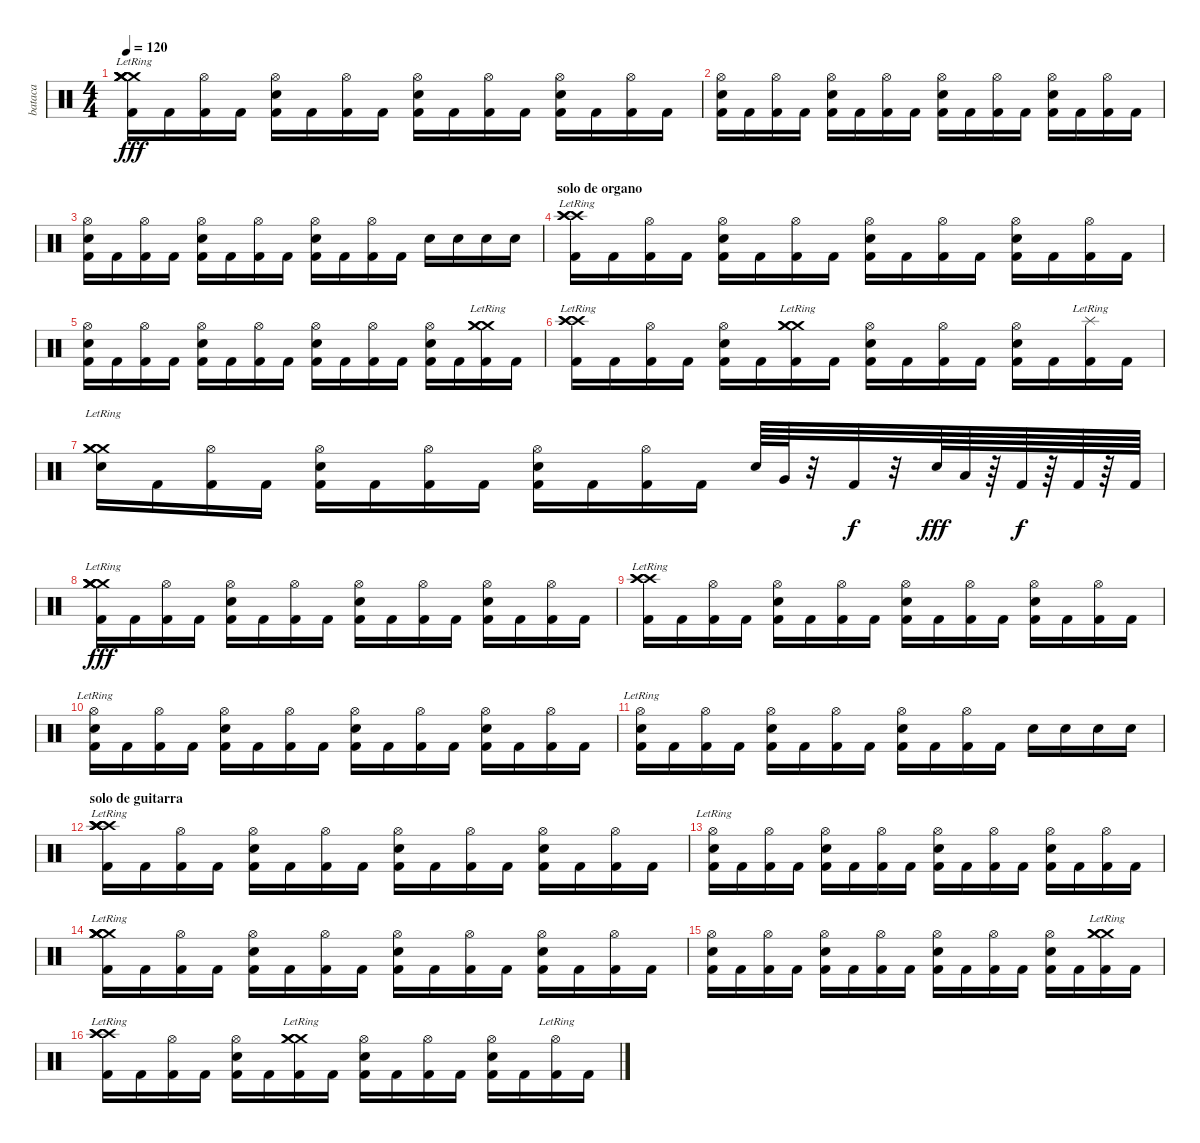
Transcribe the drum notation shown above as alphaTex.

\track ("bataca" "bataca") {instrument percussion}
\staff {score}
\articulation defaults
\ts (4 4)
\tempo 120
\clef neutral
\ks c
("Kick (hit) 2" "Crash medium (hit)"{lr} "Crash medium (hit)"{lr} "Crash medium (hit)"{lr} "Crash medium (hit)"{lr} "Crash medium (hit)").16{dy fff} "Kick (hit) 2".16 ("Kick (hit) 2" "Hi-Hat (open)").16 "Kick (hit) 2".16 ("Kick (hit) 2" "Hi-Hat (open)" "Electric Snare (hit)").16 "Kick (hit) 2".16 ("Kick (hit) 2" "Hi-Hat (open)").16 "Kick (hit) 2".16 ("Kick (hit) 2" "Hi-Hat (open)" "Electric Snare (hit)").16 "Kick (hit) 2".16 ("Kick (hit) 2" "Hi-Hat (open)").16 "Kick (hit) 2".16 ("Kick (hit) 2" "Hi-Hat (open)" "Electric Snare (hit)").16 "Kick (hit) 2".16 ("Kick (hit) 2" "Hi-Hat (open)").16 "Kick (hit) 2".16 |
("Kick (hit) 2" "Hi-Hat (open)" "Electric Snare (hit)").16 "Kick (hit) 2".16 ("Kick (hit) 2" "Hi-Hat (open)").16 "Kick (hit) 2".16 ("Kick (hit) 2" "Hi-Hat (open)" "Electric Snare (hit)").16 "Kick (hit) 2".16 ("Kick (hit) 2" "Hi-Hat (open)").16 "Kick (hit) 2".16 ("Kick (hit) 2" "Hi-Hat (open)" "Electric Snare (hit)").16 "Kick (hit) 2".16 ("Kick (hit) 2" "Hi-Hat (open)").16 "Kick (hit) 2".16 ("Kick (hit) 2" "Hi-Hat (open)" "Electric Snare (hit)").16 "Kick (hit) 2".16 ("Kick (hit) 2" "Hi-Hat (open)").16 "Kick (hit) 2".16 |
("Kick (hit) 2" "Hi-Hat (open)" "Electric Snare (hit)").16 "Kick (hit) 2".16 ("Kick (hit) 2" "Hi-Hat (open)").16 "Kick (hit) 2".16 ("Kick (hit) 2" "Hi-Hat (open)" "Electric Snare (hit)").16 "Kick (hit) 2".16 ("Kick (hit) 2" "Hi-Hat (open)").16 "Kick (hit) 2".16 ("Kick (hit) 2" "Hi-Hat (open)" "Electric Snare (hit)").16 "Kick (hit) 2".16 ("Kick (hit) 2" "Hi-Hat (open)").16 "Kick (hit) 2".16 "Electric Snare (hit)".16 "Electric Snare (hit)".16 "Electric Snare (hit)".16 "Electric Snare (hit)".16 |
\section ("" "solo de organo")
("Kick (hit) 2" "Crash high (hit)"{lr} "Crash high (hit)"{lr} "Crash high (hit)"{lr}).16 "Kick (hit) 2".16 ("Kick (hit) 2" "Hi-Hat (open)").16 "Kick (hit) 2".16 ("Kick (hit) 2" "Hi-Hat (open)" "Electric Snare (hit)").16 "Kick (hit) 2".16 ("Kick (hit) 2" "Hi-Hat (open)").16 "Kick (hit) 2".16 ("Kick (hit) 2" "Hi-Hat (open)" "Electric Snare (hit)").16 "Kick (hit) 2".16 ("Kick (hit) 2" "Hi-Hat (open)").16 "Kick (hit) 2".16 ("Kick (hit) 2" "Hi-Hat (open)" "Electric Snare (hit)").16 "Kick (hit) 2".16 ("Kick (hit) 2" "Hi-Hat (open)").16 "Kick (hit) 2".16 |
("Kick (hit) 2" "Hi-Hat (open)" "Electric Snare (hit)").16 "Kick (hit) 2".16 ("Kick (hit) 2" "Hi-Hat (open)").16 "Kick (hit) 2".16 ("Kick (hit) 2" "Hi-Hat (open)" "Electric Snare (hit)").16 "Kick (hit) 2".16 ("Kick (hit) 2" "Hi-Hat (open)").16 "Kick (hit) 2".16 ("Kick (hit) 2" "Hi-Hat (open)" "Electric Snare (hit)").16 "Kick (hit) 2".16 ("Kick (hit) 2" "Hi-Hat (open)").16 "Kick (hit) 2".16 ("Kick (hit) 2" "Hi-Hat (open)" "Electric Snare (hit)").16 "Kick (hit) 2".16 ("Kick (hit) 2" "Crash medium (hit)"{lr} "Crash medium (hit)"{lr} "Crash medium (hit)"{lr}).16 "Kick (hit) 2".16 |
("Kick (hit) 2" "Crash high (hit)"{lr} "Crash high (hit)"{lr} "Crash high (hit)"{lr}).16 "Kick (hit) 2".16 ("Kick (hit) 2" "Hi-Hat (open)").16 "Kick (hit) 2".16 ("Kick (hit) 2" "Hi-Hat (open)" "Electric Snare (hit)").16 "Kick (hit) 2".16 ("Kick (hit) 2" "Crash medium (hit)"{lr} "Crash medium (hit)"{lr} "Crash medium (hit)"{lr}).16 "Kick (hit) 2".16 ("Kick (hit) 2" "Hi-Hat (open)" "Electric Snare (hit)").16 "Kick (hit) 2".16 ("Kick (hit) 2" "Hi-Hat (open)").16 "Kick (hit) 2".16 ("Kick (hit) 2" "Hi-Hat (open)" "Electric Snare (hit)").16 "Kick (hit) 2".16 ("Kick (hit) 2" "Splash (hit)"{lr}).16 "Kick (hit) 2".16 |
("Electric Snare (hit)" "Crash medium (hit)"{lr} "Crash medium (hit)"{lr} "Crash medium (hit)"{lr}).16 "Kick (hit) 2".16 ("Kick (hit) 2" "Hi-Hat (open)").16 "Kick (hit) 2".16 ("Kick (hit) 2" "Hi-Hat (open)" "Electric Snare (hit)").16 "Kick (hit) 2".16 ("Kick (hit) 2" "Hi-Hat (open)").16 "Kick (hit) 2".16 ("Kick (hit) 2" "Hi-Hat (open)" "Electric Snare (hit)").16 "Kick (hit) 2".16 ("Kick (hit) 2" "Hi-Hat (open)").16 "Kick (hit) 2".16 "Electric Snare (hit)".64 "Very Low Tom (hit)".64 r.32 "Kick (hit) 2".32{dy f} r.32 "Electric Snare (hit)".64{dy fff} "Low Floor Tom (hit)".64 r.64 "Kick (hit) 2".64{dy f} r.64 "Kick (hit) 2".64 r.64 "Kick (hit) 2".64 |
("Kick (hit) 2" "Crash medium (hit)"{lr} "Crash medium (hit)"{lr} "Crash medium (hit)"{lr} "Crash medium (hit)"{lr} "Crash medium (hit)").16{dy fff} "Kick (hit) 2".16 ("Kick (hit) 2" "Hi-Hat (open)").16 "Kick (hit) 2".16 ("Kick (hit) 2" "Hi-Hat (open)" "Electric Snare (hit)").16 "Kick (hit) 2".16 ("Kick (hit) 2" "Hi-Hat (open)").16 "Kick (hit) 2".16 ("Kick (hit) 2" "Hi-Hat (open)" "Electric Snare (hit)").16 "Kick (hit) 2".16 ("Kick (hit) 2" "Hi-Hat (open)").16 "Kick (hit) 2".16 ("Kick (hit) 2" "Hi-Hat (open)" "Electric Snare (hit)").16 "Kick (hit) 2".16 ("Kick (hit) 2" "Hi-Hat (open)").16 "Kick (hit) 2".16 |
("Kick (hit) 2" "Crash high (hit)"{lr} "Crash high (hit)"{lr} "Crash high (hit)"{lr}).16 "Kick (hit) 2".16 ("Kick (hit) 2" "Hi-Hat (open)").16 "Kick (hit) 2".16 ("Kick (hit) 2" "Hi-Hat (open)" "Electric Snare (hit)").16 "Kick (hit) 2".16 ("Kick (hit) 2" "Hi-Hat (open)").16 "Kick (hit) 2".16 ("Kick (hit) 2" "Hi-Hat (open)" "Electric Snare (hit)").16 "Kick (hit) 2".16 ("Kick (hit) 2" "Hi-Hat (open)").16 "Kick (hit) 2".16 ("Kick (hit) 2" "Hi-Hat (open)" "Electric Snare (hit)").16 "Kick (hit) 2".16 ("Kick (hit) 2" "Hi-Hat (open)").16 "Kick (hit) 2".16 |
("Kick (hit) 2" "Hi-Hat (open)"{lr} "Electric Snare (hit)"{lr}).16 "Kick (hit) 2".16 ("Kick (hit) 2" "Hi-Hat (open)").16 "Kick (hit) 2".16 ("Kick (hit) 2" "Hi-Hat (open)" "Electric Snare (hit)").16 "Kick (hit) 2".16 ("Kick (hit) 2" "Hi-Hat (open)").16 "Kick (hit) 2".16 ("Kick (hit) 2" "Hi-Hat (open)" "Electric Snare (hit)").16 "Kick (hit) 2".16 ("Kick (hit) 2" "Hi-Hat (open)").16 "Kick (hit) 2".16 ("Kick (hit) 2" "Hi-Hat (open)" "Electric Snare (hit)").16 "Kick (hit) 2".16 ("Kick (hit) 2" "Hi-Hat (open)").16 "Kick (hit) 2".16 |
("Kick (hit) 2" "Hi-Hat (open)"{lr} "Electric Snare (hit)"{lr}).16 "Kick (hit) 2".16 ("Kick (hit) 2" "Hi-Hat (open)").16 "Kick (hit) 2".16 ("Kick (hit) 2" "Hi-Hat (open)" "Electric Snare (hit)").16 "Kick (hit) 2".16 ("Kick (hit) 2" "Hi-Hat (open)").16 "Kick (hit) 2".16 ("Kick (hit) 2" "Hi-Hat (open)" "Electric Snare (hit)").16 "Kick (hit) 2".16 ("Kick (hit) 2" "Hi-Hat (open)").16 "Kick (hit) 2".16 "Electric Snare (hit)".16 "Electric Snare (hit)".16 "Electric Snare (hit)".16 "Electric Snare (hit)".16 |
\section ("" "solo de guitarra")
("Kick (hit) 2"{lr} "Crash high (hit)"{lr} "Crash high (hit)"{lr} "Crash high (hit)"{lr} "Crash high (hit)"{lr} "Crash high (hit)"{lr}).16 "Kick (hit) 2".16 ("Kick (hit) 2" "Hi-Hat (open)").16 "Kick (hit) 2".16 ("Kick (hit) 2" "Hi-Hat (open)" "Electric Snare (hit)").16 "Kick (hit) 2".16 ("Kick (hit) 2" "Hi-Hat (open)").16 "Kick (hit) 2".16 ("Kick (hit) 2" "Hi-Hat (open)" "Electric Snare (hit)").16 "Kick (hit) 2".16 ("Kick (hit) 2" "Hi-Hat (open)").16 "Kick (hit) 2".16 ("Kick (hit) 2" "Hi-Hat (open)" "Electric Snare (hit)").16 "Kick (hit) 2".16 ("Kick (hit) 2" "Hi-Hat (open)").16 "Kick (hit) 2".16 |
("Kick (hit) 2" "Hi-Hat (open)"{lr} "Electric Snare (hit)"{lr}).16 "Kick (hit) 2".16 ("Kick (hit) 2" "Hi-Hat (open)").16 "Kick (hit) 2".16 ("Kick (hit) 2" "Hi-Hat (open)" "Electric Snare (hit)").16 "Kick (hit) 2".16 ("Kick (hit) 2" "Hi-Hat (open)").16 "Kick (hit) 2".16 ("Kick (hit) 2" "Hi-Hat (open)" "Electric Snare (hit)").16 "Kick (hit) 2".16 ("Kick (hit) 2" "Hi-Hat (open)").16 "Kick (hit) 2".16 ("Kick (hit) 2" "Hi-Hat (open)" "Electric Snare (hit)").16 "Kick (hit) 2".16 ("Kick (hit) 2" "Hi-Hat (open)").16 "Kick (hit) 2".16 |
("Kick (hit) 2" "Crash medium (hit)"{lr} "Crash medium (hit)"{lr} "Crash medium (hit)"{lr} "Crash medium (hit)"{lr} "Crash medium (hit)").16 "Kick (hit) 2".16 ("Kick (hit) 2" "Hi-Hat (open)").16 "Kick (hit) 2".16 ("Kick (hit) 2" "Hi-Hat (open)" "Electric Snare (hit)").16 "Kick (hit) 2".16 ("Kick (hit) 2" "Hi-Hat (open)").16 "Kick (hit) 2".16 ("Kick (hit) 2" "Hi-Hat (open)" "Electric Snare (hit)").16 "Kick (hit) 2".16 ("Kick (hit) 2" "Hi-Hat (open)").16 "Kick (hit) 2".16 ("Kick (hit) 2" "Hi-Hat (open)" "Electric Snare (hit)").16 "Kick (hit) 2".16 ("Kick (hit) 2" "Hi-Hat (open)").16 "Kick (hit) 2".16 |
("Kick (hit) 2" "Hi-Hat (open)" "Electric Snare (hit)").16 "Kick (hit) 2".16 ("Kick (hit) 2" "Hi-Hat (open)").16 "Kick (hit) 2".16 ("Kick (hit) 2" "Hi-Hat (open)" "Electric Snare (hit)").16 "Kick (hit) 2".16 ("Kick (hit) 2" "Hi-Hat (open)").16 "Kick (hit) 2".16 ("Kick (hit) 2" "Hi-Hat (open)" "Electric Snare (hit)").16 "Kick (hit) 2".16 ("Kick (hit) 2" "Hi-Hat (open)").16 "Kick (hit) 2".16 ("Kick (hit) 2" "Hi-Hat (open)" "Electric Snare (hit)").16 "Kick (hit) 2".16 ("Kick (hit) 2" "Crash medium (hit)"{lr} "Crash medium (hit)"{lr} "Crash medium (hit)"{lr}).16 "Kick (hit) 2".16 |
("Kick (hit) 2" "Crash high (hit)"{lr} "Crash high (hit)"{lr} "Crash high (hit)"{lr}).16 "Kick (hit) 2".16 ("Kick (hit) 2" "Hi-Hat (open)").16 "Kick (hit) 2".16 ("Kick (hit) 2" "Hi-Hat (open)" "Electric Snare (hit)").16 "Kick (hit) 2".16 ("Kick (hit) 2" "Crash medium (hit)"{lr} "Crash medium (hit)"{lr} "Crash medium (hit)"{lr}).16 "Kick (hit) 2".16 ("Kick (hit) 2" "Hi-Hat (open)" "Electric Snare (hit)").16 "Kick (hit) 2".16 ("Kick (hit) 2" "Hi-Hat (open)").16 "Kick (hit) 2".16 ("Kick (hit) 2" "Hi-Hat (open)" "Electric Snare (hit)").16 "Kick (hit) 2".16 ("Kick (hit) 2" "Hi-Hat (open)"{lr}).16 "Kick (hit) 2".16
